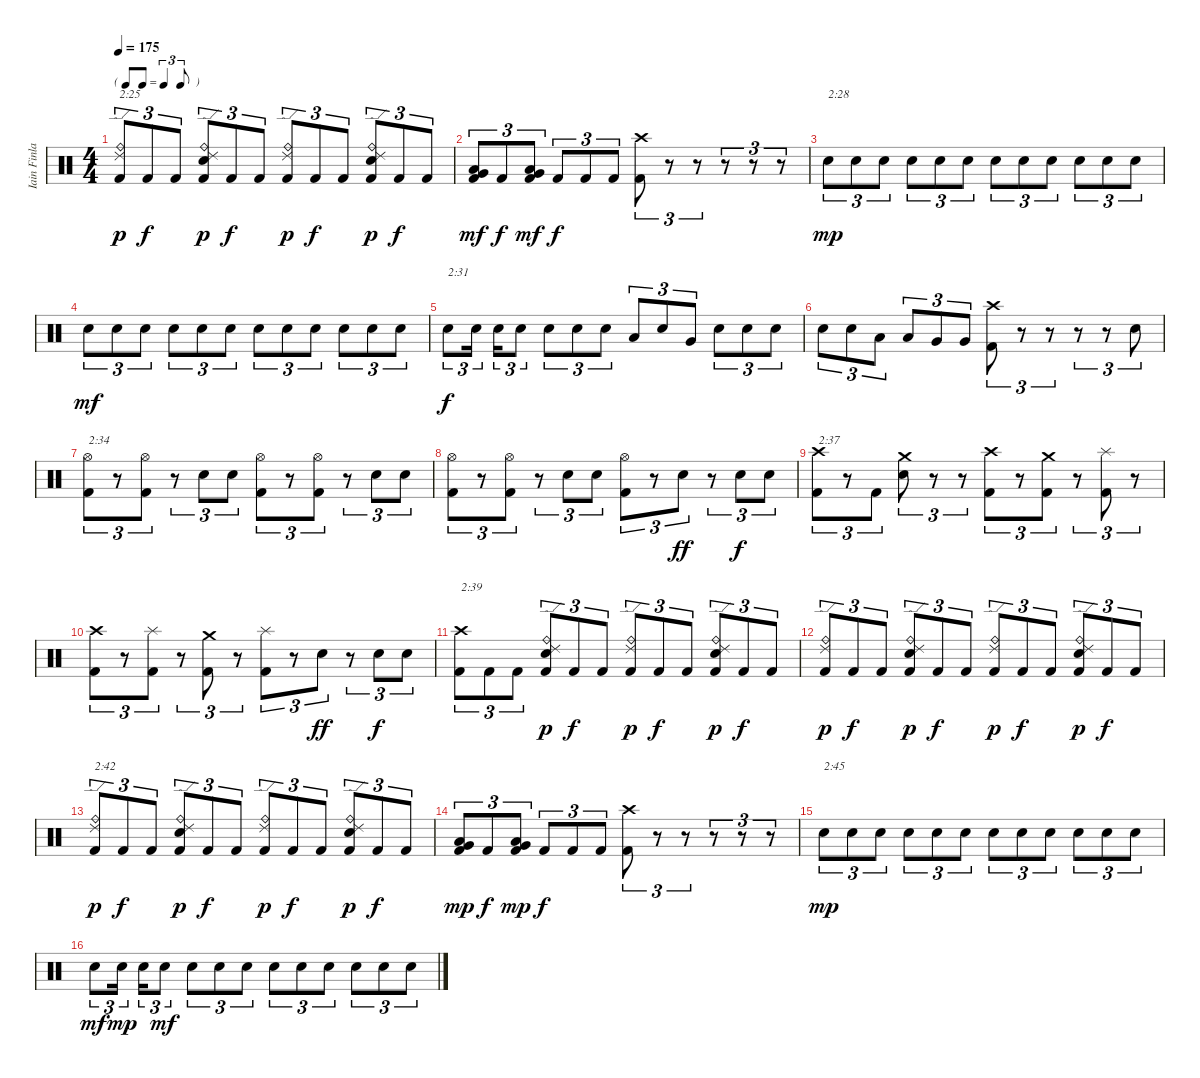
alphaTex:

\track ("Iain Finlay" "Iain Finla") {instrument percussion}
\staff {score}
\articulation defaults
\ts (4 4)
\tf triplet8th
\tempo 175
\clef neutral
\ks c
("Ride (edge) 2" "Ride (bell)" "Kick (hit) 2").8{tu (3 2) txt "2:25" dy p} "Kick (hit) 2".8{tu (3 2) dy f} "Kick (hit) 2".8{tu (3 2)} ("Ride (edge) 2" "Ride (bell)" "Electric Snare (hit)" "Kick (hit) 2").8{tu (3 2) dy p} "Kick (hit) 2".8{tu (3 2) dy f} "Kick (hit) 2".8{tu (3 2)} ("Ride (edge) 2" "Ride (bell)" "Kick (hit) 2").8{tu (3 2) dy p} "Kick (hit) 2".8{tu (3 2) dy f} "Kick (hit) 2".8{tu (3 2)} ("Ride (edge) 2" "Ride (bell)" "Electric Snare (hit)" "Kick (hit) 2").8{tu (3 2) dy p} "Kick (hit) 2".8{tu (3 2) dy f} "Kick (hit) 2".8{tu (3 2)} |
("Very Low Tom (hit)" "Low Floor Tom (hit)" "Kick (hit) 2").8{tu (3 2) dy mf} "Kick (hit) 2".8{tu (3 2) dy f} ("Very Low Tom (hit)" "Low Floor Tom (hit)" "Kick (hit) 2").8{tu (3 2) dy mf} "Kick (hit) 2".8{tu (3 2) dy f} "Kick (hit) 2".8{tu (3 2)} "Kick (hit) 2".8{tu (3 2)} ("Crash high (hit)" "Kick (hit) 2").8{tu (3 2)} r.8{tu (3 2)} r.8{tu (3 2)} r.8{tu (3 2)} r.8{tu (3 2)} r.8{tu (3 2)} |
"Electric Snare (hit)".8{tu (3 2) txt "2:28" dy mp} "Electric Snare (hit)".8{tu (3 2)} "Electric Snare (hit)".8{tu (3 2)} "Electric Snare (hit)".8{tu (3 2)} "Electric Snare (hit)".8{tu (3 2)} "Electric Snare (hit)".8{tu (3 2)} "Electric Snare (hit)".8{tu (3 2)} "Electric Snare (hit)".8{tu (3 2)} "Electric Snare (hit)".8{tu (3 2)} "Electric Snare (hit)".8{tu (3 2)} "Electric Snare (hit)".8{tu (3 2)} "Electric Snare (hit)".8{tu (3 2)} |
"Electric Snare (hit)".8{tu (3 2) dy mf} "Electric Snare (hit)".8{tu (3 2)} "Electric Snare (hit)".8{tu (3 2)} "Electric Snare (hit)".8{tu (3 2)} "Electric Snare (hit)".8{tu (3 2)} "Electric Snare (hit)".8{tu (3 2)} "Electric Snare (hit)".8{tu (3 2)} "Electric Snare (hit)".8{tu (3 2)} "Electric Snare (hit)".8{tu (3 2)} "Electric Snare (hit)".8{tu (3 2)} "Electric Snare (hit)".8{tu (3 2)} "Electric Snare (hit)".8{tu (3 2)} |
"Electric Snare (hit)".8{tu (3 2) txt "2:31" dy f} "Electric Snare (hit)".16{tu (3 2) beam splitsecondary} "Electric Snare (hit)".16{tu (3 2)} "Electric Snare (hit)".8{tu (3 2)} "Electric Snare (hit)".8{tu (3 2)} "Electric Snare (hit)".8{tu (3 2)} "Electric Snare (hit)".8{tu (3 2)} "Low Tom (hit)".8{tu (3 2)} "Electric Snare (hit)".8{tu (3 2)} "Very Low Tom (hit)".8{tu (3 2)} "Electric Snare (hit)".8{tu (3 2)} "Electric Snare (hit)".8{tu (3 2)} "Electric Snare (hit)".8{tu (3 2)} |
"Electric Snare (hit)".8{tu (3 2)} "Electric Snare (hit)".8{tu (3 2)} "Low Tom (hit)".8{tu (3 2)} "Low Tom (hit)".8{tu (3 2)} "Very Low Tom (hit)".8{tu (3 2)} "Very Low Tom (hit)".8{tu (3 2)} ("Crash high (hit)" "Kick (hit) 2").8{tu (3 2)} r.8{tu (3 2)} r.8{tu (3 2)} r.8{tu (3 2)} r.8{tu (3 2)} "Electric Snare (hit)".8{tu (3 2)} |
("Hi-Hat (open)" "Kick (hit) 2").8{tu (3 2) txt "2:34"} r.8{tu (3 2)} ("Hi-Hat (open)" "Kick (hit) 2").8{tu (3 2)} r.8{tu (3 2)} "Electric Snare (hit)".8{tu (3 2)} "Electric Snare (hit)".8{tu (3 2)} ("Hi-Hat (open)" "Kick (hit) 2").8{tu (3 2)} r.8{tu (3 2)} ("Hi-Hat (open)" "Kick (hit) 2").8{tu (3 2)} r.8{tu (3 2)} "Electric Snare (hit)".8{tu (3 2)} "Electric Snare (hit)".8{tu (3 2)} |
("Hi-Hat (open)" "Kick (hit) 2").8{tu (3 2)} r.8{tu (3 2)} ("Hi-Hat (open)" "Kick (hit) 2").8{tu (3 2)} r.8{tu (3 2)} "Electric Snare (hit)".8{tu (3 2)} "Electric Snare (hit)".8{tu (3 2)} ("Hi-Hat (open)" "Kick (hit) 2").8{tu (3 2)} r.8{tu (3 2)} "Electric Snare (hit)".8{tu (3 2) dy ff} r.8{tu (3 2)} "Electric Snare (hit)".8{tu (3 2) dy f} "Electric Snare (hit)".8{tu (3 2)} |
("Crash high (hit)" "Kick (hit) 2").8{tu (3 2) txt "2:37"} r.8{tu (3 2)} "Kick (hit) 2".8{tu (3 2)} ("Crash medium (hit)" "Electric Snare (hit)").8{tu (3 2)} r.8{tu (3 2)} r.8{tu (3 2)} ("Crash high (hit)" "Kick (hit) 2").8{tu (3 2)} r.8{tu (3 2)} ("Crash medium (hit)" "Kick (hit) 2").8{tu (3 2)} r.8{tu (3 2)} ("Splash (hit)" "Kick (hit) 2").8{tu (3 2)} r.8{tu (3 2)} |
("Crash high (hit)" "Kick (hit) 2").8{tu (3 2)} r.8{tu (3 2)} ("Splash (hit)" "Kick (hit) 2").8{tu (3 2)} r.8{tu (3 2)} ("Crash medium (hit)" "Kick (hit) 2").8{tu (3 2)} r.8{tu (3 2)} ("Splash (hit)" "Kick (hit) 2").8{tu (3 2)} r.8{tu (3 2)} "Electric Snare (hit)".8{tu (3 2) dy ff} r.8{tu (3 2)} "Electric Snare (hit)".8{tu (3 2) dy f} "Electric Snare (hit)".8{tu (3 2)} |
("Crash high (hit)" "Kick (hit) 2").8{tu (3 2) txt "2:39"} "Kick (hit) 2".8{tu (3 2)} "Kick (hit) 2".8{tu (3 2)} ("Ride (edge) 2" "Ride (bell)" "Electric Snare (hit)" "Kick (hit) 2").8{tu (3 2) dy p} "Kick (hit) 2".8{tu (3 2) dy f} "Kick (hit) 2".8{tu (3 2)} ("Ride (edge) 2" "Ride (bell)" "Kick (hit) 2").8{tu (3 2) dy p} "Kick (hit) 2".8{tu (3 2) dy f} "Kick (hit) 2".8{tu (3 2)} ("Ride (edge) 2" "Ride (bell)" "Electric Snare (hit)" "Kick (hit) 2").8{tu (3 2) dy p} "Kick (hit) 2".8{tu (3 2) dy f} "Kick (hit) 2".8{tu (3 2)} |
("Ride (edge) 2" "Ride (bell)" "Kick (hit) 2").8{tu (3 2) dy p} "Kick (hit) 2".8{tu (3 2) dy f} "Kick (hit) 2".8{tu (3 2)} ("Ride (edge) 2" "Ride (bell)" "Electric Snare (hit)" "Kick (hit) 2").8{tu (3 2) dy p} "Kick (hit) 2".8{tu (3 2) dy f} "Kick (hit) 2".8{tu (3 2)} ("Ride (edge) 2" "Ride (bell)" "Kick (hit) 2").8{tu (3 2) dy p} "Kick (hit) 2".8{tu (3 2) dy f} "Kick (hit) 2".8{tu (3 2)} ("Ride (edge) 2" "Ride (bell)" "Electric Snare (hit)" "Kick (hit) 2").8{tu (3 2) dy p} "Kick (hit) 2".8{tu (3 2) dy f} "Kick (hit) 2".8{tu (3 2)} |
("Ride (edge) 2" "Ride (bell)" "Kick (hit) 2").8{tu (3 2) txt "2:42" dy p} "Kick (hit) 2".8{tu (3 2) dy f} "Kick (hit) 2".8{tu (3 2)} ("Ride (edge) 2" "Ride (bell)" "Electric Snare (hit)" "Kick (hit) 2").8{tu (3 2) dy p} "Kick (hit) 2".8{tu (3 2) dy f} "Kick (hit) 2".8{tu (3 2)} ("Ride (edge) 2" "Ride (bell)" "Kick (hit) 2").8{tu (3 2) dy p} "Kick (hit) 2".8{tu (3 2) dy f} "Kick (hit) 2".8{tu (3 2)} ("Ride (edge) 2" "Ride (bell)" "Electric Snare (hit)" "Kick (hit) 2").8{tu (3 2) dy p} "Kick (hit) 2".8{tu (3 2) dy f} "Kick (hit) 2".8{tu (3 2)} |
("Very Low Tom (hit)" "Low Floor Tom (hit)" "Kick (hit) 2").8{tu (3 2) dy mp} "Kick (hit) 2".8{tu (3 2) dy f} ("Very Low Tom (hit)" "Low Floor Tom (hit)" "Kick (hit) 2").8{tu (3 2) dy mp} "Kick (hit) 2".8{tu (3 2) dy f} "Kick (hit) 2".8{tu (3 2)} "Kick (hit) 2".8{tu (3 2)} ("Crash high (hit)" "Kick (hit) 2").8{tu (3 2)} r.8{tu (3 2)} r.8{tu (3 2)} r.8{tu (3 2)} r.8{tu (3 2)} r.8{tu (3 2)} |
"Electric Snare (hit)".8{tu (3 2) txt "2:45" dy mp} "Electric Snare (hit)".8{tu (3 2)} "Electric Snare (hit)".8{tu (3 2)} "Electric Snare (hit)".8{tu (3 2)} "Electric Snare (hit)".8{tu (3 2)} "Electric Snare (hit)".8{tu (3 2)} "Electric Snare (hit)".8{tu (3 2)} "Electric Snare (hit)".8{tu (3 2)} "Electric Snare (hit)".8{tu (3 2)} "Electric Snare (hit)".8{tu (3 2)} "Electric Snare (hit)".8{tu (3 2)} "Electric Snare (hit)".8{tu (3 2)} |
"Electric Snare (hit)".8{tu (3 2) dy mf} "Electric Snare (hit)".16{tu (3 2) dy mp beam splitsecondary} "Electric Snare (hit)".16{tu (3 2)} "Electric Snare (hit)".8{tu (3 2) dy mf} "Electric Snare (hit)".8{tu (3 2)} "Electric Snare (hit)".8{tu (3 2)} "Electric Snare (hit)".8{tu (3 2)} "Electric Snare (hit)".8{tu (3 2)} "Electric Snare (hit)".8{tu (3 2)} "Electric Snare (hit)".8{tu (3 2)} "Electric Snare (hit)".8{tu (3 2)} "Electric Snare (hit)".8{tu (3 2)} "Electric Snare (hit)".8{tu (3 2)}
